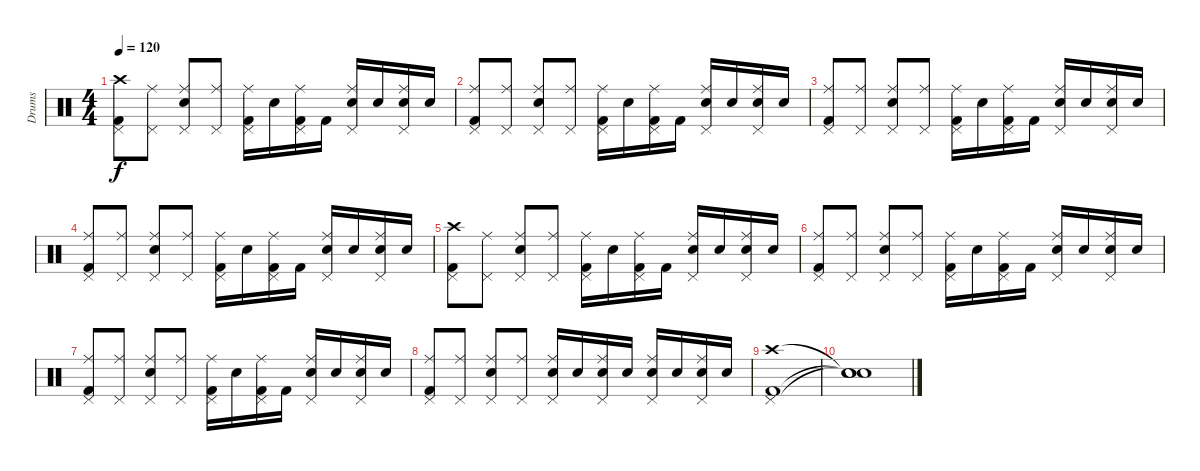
\track ("Drums" "Drums") {instrument percussion}
\staff {score}
\articulation defaults
\ts (4 4)
\tempo 120
\clef neutral
\ks c
("Crash high (hit)" "Kick (hit) 2" "Pedal Hi-Hat (hit)").8{dy f} ("Ride (middle)" "Pedal Hi-Hat (hit)").8 ("Ride (middle)" "Electric Snare (hit)" "Pedal Hi-Hat (hit)").8 ("Ride (middle)" "Pedal Hi-Hat (hit)").8 ("Ride (middle)" "Kick (hit) 2" "Pedal Hi-Hat (hit)").16 "Electric Snare (hit)".16 ("Ride (middle)" "Kick (hit) 2" "Pedal Hi-Hat (hit)").16 "Kick (hit) 2".16 ("Ride (middle)" "Electric Snare (hit)" "Pedal Hi-Hat (hit)").16 "Electric Snare (hit)".16 ("Ride (middle)" "Electric Snare (hit)" "Pedal Hi-Hat (hit)").16 "Electric Snare (hit)".16 |
("Ride (middle)" "Kick (hit) 2" "Pedal Hi-Hat (hit)").8 ("Ride (middle)" "Pedal Hi-Hat (hit)").8 ("Ride (middle)" "Electric Snare (hit)" "Pedal Hi-Hat (hit)").8 ("Ride (middle)" "Pedal Hi-Hat (hit)").8 ("Ride (middle)" "Kick (hit) 2" "Pedal Hi-Hat (hit)").16 "Electric Snare (hit)".16 ("Ride (middle)" "Kick (hit) 2" "Pedal Hi-Hat (hit)").16 "Kick (hit) 2".16 ("Ride (middle)" "Electric Snare (hit)" "Pedal Hi-Hat (hit)").16 "Electric Snare (hit)".16 ("Ride (middle)" "Electric Snare (hit)" "Pedal Hi-Hat (hit)").16 "Electric Snare (hit)".16 |
("Ride (middle)" "Kick (hit) 2" "Pedal Hi-Hat (hit)").8 ("Ride (middle)" "Pedal Hi-Hat (hit)").8 ("Ride (middle)" "Electric Snare (hit)" "Pedal Hi-Hat (hit)").8 ("Ride (middle)" "Pedal Hi-Hat (hit)").8 ("Ride (middle)" "Kick (hit) 2" "Pedal Hi-Hat (hit)").16 "Electric Snare (hit)".16 ("Ride (middle)" "Kick (hit) 2" "Pedal Hi-Hat (hit)").16 "Kick (hit) 2".16 ("Ride (middle)" "Electric Snare (hit)" "Pedal Hi-Hat (hit)").16 "Electric Snare (hit)".16 ("Ride (middle)" "Electric Snare (hit)" "Pedal Hi-Hat (hit)").16 "Electric Snare (hit)".16 |
("Ride (middle)" "Kick (hit) 2" "Pedal Hi-Hat (hit)").8 ("Ride (middle)" "Pedal Hi-Hat (hit)").8 ("Ride (middle)" "Electric Snare (hit)" "Pedal Hi-Hat (hit)").8 ("Ride (middle)" "Pedal Hi-Hat (hit)").8 ("Ride (middle)" "Kick (hit) 2" "Pedal Hi-Hat (hit)").16 "Electric Snare (hit)".16 ("Ride (middle)" "Kick (hit) 2" "Pedal Hi-Hat (hit)").16 "Kick (hit) 2".16 ("Ride (middle)" "Electric Snare (hit)" "Pedal Hi-Hat (hit)").16 "Electric Snare (hit)".16 ("Ride (middle)" "Electric Snare (hit)" "Pedal Hi-Hat (hit)").16 "Electric Snare (hit)".16 |
("Crash high (hit)" "Kick (hit) 2" "Pedal Hi-Hat (hit)").8 ("Ride (middle)" "Pedal Hi-Hat (hit)").8 ("Ride (middle)" "Electric Snare (hit)" "Pedal Hi-Hat (hit)").8 ("Ride (middle)" "Pedal Hi-Hat (hit)").8 ("Ride (middle)" "Kick (hit) 2" "Pedal Hi-Hat (hit)").16 "Electric Snare (hit)".16 ("Ride (middle)" "Kick (hit) 2" "Pedal Hi-Hat (hit)").16 "Kick (hit) 2".16 ("Ride (middle)" "Electric Snare (hit)" "Pedal Hi-Hat (hit)").16 "Electric Snare (hit)".16 ("Ride (middle)" "Electric Snare (hit)" "Pedal Hi-Hat (hit)").16 "Electric Snare (hit)".16 |
("Ride (middle)" "Kick (hit) 2" "Pedal Hi-Hat (hit)").8 ("Ride (middle)" "Pedal Hi-Hat (hit)").8 ("Ride (middle)" "Electric Snare (hit)" "Pedal Hi-Hat (hit)").8 ("Ride (middle)" "Pedal Hi-Hat (hit)").8 ("Ride (middle)" "Kick (hit) 2" "Pedal Hi-Hat (hit)").16 "Electric Snare (hit)".16 ("Ride (middle)" "Kick (hit) 2" "Pedal Hi-Hat (hit)").16 "Kick (hit) 2".16 ("Ride (middle)" "Electric Snare (hit)" "Pedal Hi-Hat (hit)").16 "Electric Snare (hit)".16 ("Ride (middle)" "Electric Snare (hit)" "Pedal Hi-Hat (hit)").16 "Electric Snare (hit)".16 |
("Ride (middle)" "Kick (hit) 2" "Pedal Hi-Hat (hit)").8 ("Ride (middle)" "Pedal Hi-Hat (hit)").8 ("Ride (middle)" "Electric Snare (hit)" "Pedal Hi-Hat (hit)").8 ("Ride (middle)" "Pedal Hi-Hat (hit)").8 ("Ride (middle)" "Kick (hit) 2" "Pedal Hi-Hat (hit)").16 "Electric Snare (hit)".16 ("Ride (middle)" "Kick (hit) 2" "Pedal Hi-Hat (hit)").16 "Kick (hit) 2".16 ("Ride (middle)" "Electric Snare (hit)" "Pedal Hi-Hat (hit)").16 "Electric Snare (hit)".16 ("Ride (middle)" "Electric Snare (hit)" "Pedal Hi-Hat (hit)").16 "Electric Snare (hit)".16 |
("Ride (middle)" "Kick (hit) 2" "Pedal Hi-Hat (hit)").8 ("Ride (middle)" "Pedal Hi-Hat (hit)").8 ("Ride (middle)" "Electric Snare (hit)" "Pedal Hi-Hat (hit)").8 ("Ride (middle)" "Pedal Hi-Hat (hit)").8 ("Ride (middle)" "Electric Snare (hit)" "Pedal Hi-Hat (hit)").16 "Electric Snare (hit)".16 ("Ride (middle)" "Electric Snare (hit)" "Pedal Hi-Hat (hit)").16 "Electric Snare (hit)".16 ("Ride (middle)" "Electric Snare (hit)" "Pedal Hi-Hat (hit)").16 "Electric Snare (hit)".16 ("Ride (middle)" "Electric Snare (hit)" "Pedal Hi-Hat (hit)").16 "Electric Snare (hit)".16 |
("Crash high (hit)" "Kick (hit) 2" "Pedal Hi-Hat (hit)").1 |
("Snare (hit)"{t} "Snare (hit)"{t} "Snare (hit)"{t}).1
